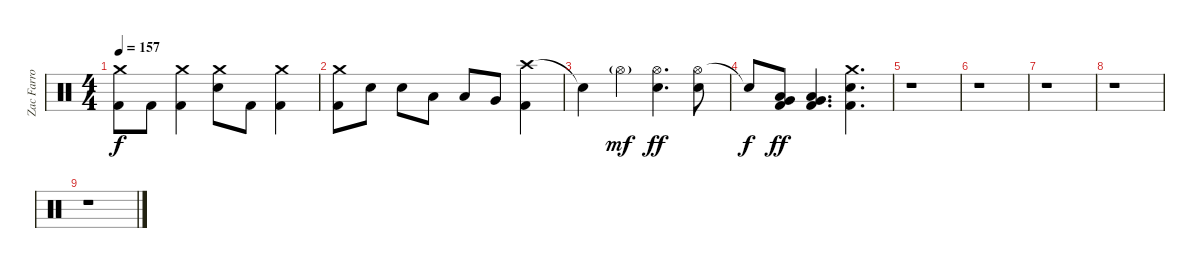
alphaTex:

\track ("Zac Farro | Drum" "Zac Farro ") {instrument percussion}
\staff {score}
\articulation defaults
\ts (4 4)
\tempo 157
\clef neutral
\ks c
("Crash medium (hit)" "Kick (hit) 2").8{dy f} "Kick (hit) 2".8 ("Crash medium (hit)" "Kick (hit) 2").4 ("Crash medium (hit)" "Electric Snare (hit)").8 "Kick (hit) 2".8 ("Crash medium (hit)" "Kick (hit) 2").4 |
("Crash medium (hit)" "Kick (hit) 2").8 "Electric Snare (hit)".8 "Electric Snare (hit)".8 "Low Tom (hit)".8 "Low Tom (hit)".8 "Very Low Tom (hit)".8 ("Crash high (hit)" "Kick (hit) 2").4 |
"Snare (hit)"{t}.4 "Hi-Hat (open)"{g}.4{dy mf} ("Hi-Hat (open)" "Electric Snare (hit)").4{d dy ff} ("Hi-Hat (open)" "Electric Snare (hit)").8 |
"Snare (hit)"{t}.8{dy f} ("Very Low Tom (hit)" "Low Floor Tom (hit)" "Kick (hit) 2").8{dy ff} ("Very Low Tom (hit)" "Low Floor Tom (hit)" "Kick (hit) 2").4{d} ("Crash medium (hit)" "Electric Snare (hit)" "Kick (hit) 2").4{d} |
r.1 |
r.1 |
r.1 |
r.1 |
r.1
